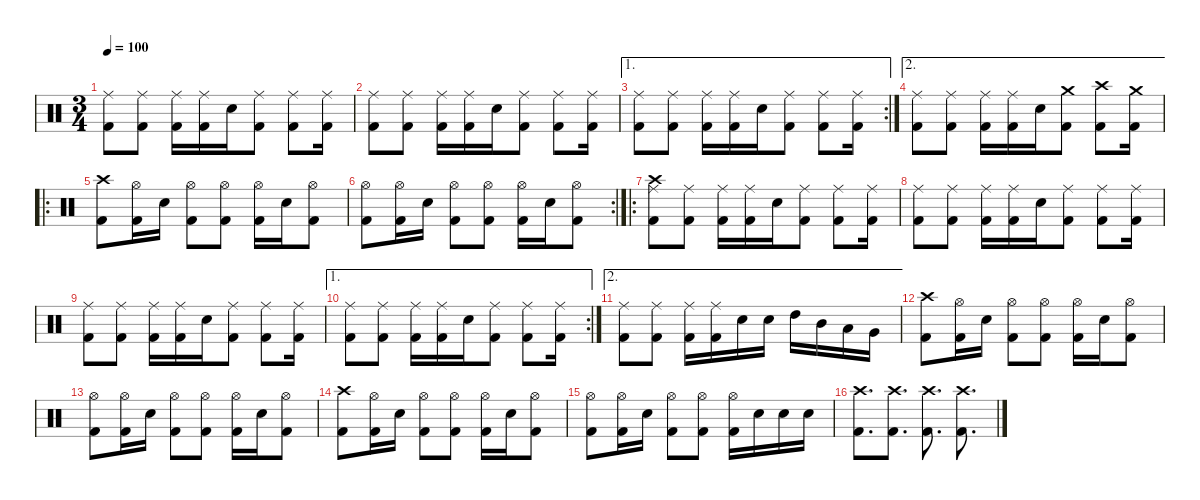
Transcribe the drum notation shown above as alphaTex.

\defaultSystemsLayout 4
\hideDynamics
\bracketExtendMode nobrackets
\singleTrackTrackNamePolicy hidden
\multiTrackTrackNamePolicy hidden
\firstSystemTrackNameMode fullname
\firstSystemTrackNameOrientation horizontal
\otherSystemsTrackNameOrientation horizontal
\track ("Drums" "drm.") {instrument percussion}
\staff {score}
\articulation defaults
\ts (3 4)
\tempo 100
\clef neutral
\ks c
("Ride (middle)" "Kick (hit) 2").8{dy f beam Down} ("Ride (middle)" "Kick (hit) 2").8{beam Down} ("Ride (middle)" "Kick (hit) 2").16{beam Down} ("Ride (middle)" "Kick (hit) 2").16{beam Down} "Snare (hit) 2".16{beam Down} ("Ride (middle)" "Kick (hit) 2").8{beam Down} ("Ride (middle)" "Kick (hit) 2").8{beam Down} ("Ride (middle)" "Kick (hit) 2").16{beam Down} |
("Ride (middle)" "Kick (hit) 2").8{beam Down} ("Ride (middle)" "Kick (hit) 2").8{beam Down} ("Ride (middle)" "Kick (hit) 2").16{beam Down} ("Ride (middle)" "Kick (hit) 2").16{beam Down} "Snare (hit) 2".16{beam Down} ("Ride (middle)" "Kick (hit) 2").8{beam Down} ("Ride (middle)" "Kick (hit) 2").8{beam Down} ("Ride (middle)" "Kick (hit) 2").16{beam Down} |
\ae 1
\rc 2
("Ride (middle)" "Kick (hit) 2").8{beam Down} ("Ride (middle)" "Kick (hit) 2").8{beam Down} ("Ride (middle)" "Kick (hit) 2").16{beam Down} ("Ride (middle)" "Kick (hit) 2").16{beam Down} "Snare (hit) 2".16{beam Down} ("Ride (middle)" "Kick (hit) 2").8{beam Down} ("Ride (middle)" "Kick (hit) 2").8{beam Down} ("Ride (middle)" "Kick (hit) 2").16{beam Down} |
\ae 2
("Ride (middle)" "Kick (hit) 2").8{beam Down} ("Ride (middle)" "Kick (hit) 2").8{beam Down} ("Ride (middle)" "Kick (hit) 2").16{beam Down} ("Ride (middle)" "Kick (hit) 2").16{beam Down} "Snare (hit) 2".16{beam Down} ("Crash medium (hit)" "Kick (hit) 2").8{beam Down} ("Crash high (hit)" "Kick (hit) 2").8{beam Down} ("Crash medium (hit)" "Kick (hit) 2").16{beam Down} |
\ro
("Crash high (hit)" "Kick (hit) 2").8{beam Down} ("Hi-Hat (open)" "Kick (hit) 2").16{dy mf beam Down} "Snare (hit) 2".16{dy f beam Down} ("Hi-Hat (open)" "Kick (hit) 2").8{dy mf beam Down} ("Hi-Hat (open)" "Kick (hit) 2").8{beam Down} ("Hi-Hat (open)" "Kick (hit) 2").16{beam Down} "Snare (hit) 2".16{dy f beam Down} ("Hi-Hat (open)" "Kick (hit) 2").8{dy mf beam Down} |
\rc 2
("Hi-Hat (open)" "Kick (hit) 2").8{beam Down} ("Hi-Hat (open)" "Kick (hit) 2").16{beam Down} "Snare (hit) 2".16{dy f beam Down} ("Hi-Hat (open)" "Kick (hit) 2").8{dy mf beam Down} ("Hi-Hat (open)" "Kick (hit) 2").8{beam Down} ("Hi-Hat (open)" "Kick (hit) 2").16{beam Down} "Snare (hit) 2".16{dy f beam Down} ("Hi-Hat (open)" "Kick (hit) 2").8{dy mf beam Down} |
\ro
("Ride (middle)" "Crash high (hit)" "Kick (hit) 2").8{dy f beam Down} ("Ride (middle)" "Kick (hit) 2").8{beam Down} ("Ride (middle)" "Kick (hit) 2").16{beam Down} ("Ride (middle)" "Kick (hit) 2").16{beam Down} "Snare (hit) 2".16{beam Down} ("Ride (middle)" "Kick (hit) 2").8{beam Down} ("Ride (middle)" "Kick (hit) 2").8{beam Down} ("Ride (middle)" "Kick (hit) 2").16{beam Down} |
("Ride (middle)" "Kick (hit) 2").8{beam Down} ("Ride (middle)" "Kick (hit) 2").8{beam Down} ("Ride (middle)" "Kick (hit) 2").16{beam Down} ("Ride (middle)" "Kick (hit) 2").16{beam Down} "Snare (hit) 2".16{beam Down} ("Ride (middle)" "Kick (hit) 2").8{beam Down} ("Ride (middle)" "Kick (hit) 2").8{beam Down} ("Ride (middle)" "Kick (hit) 2").16{beam Down} |
("Ride (middle)" "Kick (hit) 2").8{beam Down} ("Ride (middle)" "Kick (hit) 2").8{beam Down} ("Ride (middle)" "Kick (hit) 2").16{beam Down} ("Ride (middle)" "Kick (hit) 2").16{beam Down} "Snare (hit) 2".16{beam Down} ("Ride (middle)" "Kick (hit) 2").8{beam Down} ("Ride (middle)" "Kick (hit) 2").8{beam Down} ("Ride (middle)" "Kick (hit) 2").16{beam Down} |
\ae 1
\rc 2
("Ride (middle)" "Kick (hit) 2").8{beam Down} ("Ride (middle)" "Kick (hit) 2").8{beam Down} ("Ride (middle)" "Kick (hit) 2").16{beam Down} ("Ride (middle)" "Kick (hit) 2").16{beam Down} "Snare (hit) 2".16{beam Down} ("Ride (middle)" "Kick (hit) 2").8{beam Down} ("Ride (middle)" "Kick (hit) 2").8{beam Down} ("Ride (middle)" "Kick (hit) 2").16{beam Down} |
\ae 2
("Ride (middle)" "Kick (hit) 2").8{beam Down} ("Ride (middle)" "Kick (hit) 2").8{beam Down} ("Ride (middle)" "Kick (hit) 2").16{beam Down} ("Ride (middle)" "Kick (hit) 2").16{beam Down} "Snare (hit) 2".16{beam Down} "Snare (hit) 2".16{beam Down} "High Tom (hit)".16{beam Down} "Mid Tom (hit)".16{beam Down} "Low Tom (hit)".16{beam Down} "Very Low Tom (hit)".16{beam Down} |
("Crash high (hit)" "Kick (hit) 2").8{beam Down} ("Hi-Hat (open)" "Kick (hit) 2").16{dy mf beam Down} "Snare (hit) 2".16{dy f beam Down} ("Hi-Hat (open)" "Kick (hit) 2").8{dy mf beam Down} ("Hi-Hat (open)" "Kick (hit) 2").8{beam Down} ("Hi-Hat (open)" "Kick (hit) 2").16{beam Down} "Snare (hit) 2".16{dy f beam Down} ("Hi-Hat (open)" "Kick (hit) 2").8{dy mf beam Down} |
("Hi-Hat (open)" "Kick (hit) 2").8{beam Down} ("Hi-Hat (open)" "Kick (hit) 2").16{beam Down} "Snare (hit) 2".16{dy f beam Down} ("Hi-Hat (open)" "Kick (hit) 2").8{dy mf beam Down} ("Hi-Hat (open)" "Kick (hit) 2").8{beam Down} ("Hi-Hat (open)" "Kick (hit) 2").16{beam Down} "Snare (hit) 2".16{dy f beam Down} ("Hi-Hat (open)" "Kick (hit) 2").8{dy mf beam Down} |
("Crash high (hit)" "Kick (hit) 2").8{dy f beam Down} ("Hi-Hat (open)" "Kick (hit) 2").16{dy mf beam Down} "Snare (hit) 2".16{dy f beam Down} ("Hi-Hat (open)" "Kick (hit) 2").8{dy mf beam Down} ("Hi-Hat (open)" "Kick (hit) 2").8{beam Down} ("Hi-Hat (open)" "Kick (hit) 2").16{beam Down} "Snare (hit) 2".16{dy f beam Down} ("Hi-Hat (open)" "Kick (hit) 2").8{dy mf beam Down} |
("Hi-Hat (open)" "Kick (hit) 2").8{beam Down} ("Hi-Hat (open)" "Kick (hit) 2").16{beam Down} "Snare (hit) 2".16{dy f beam Down} ("Hi-Hat (open)" "Kick (hit) 2").8{dy mf beam Down} ("Hi-Hat (open)" "Kick (hit) 2").8{beam Down} ("Hi-Hat (open)" "Kick (hit) 2").16{beam Down} "Snare (hit) 2".16{dy f beam Down} "Snare (hit) 2".16{beam Down} "Snare (hit) 2".16{beam Down} |
("Crash high (hit)" "Kick (hit) 2").8{d beam Down} ("Crash high (hit)" "Kick (hit) 2").8{d beam Down} ("Crash high (hit)" "Kick (hit) 2").8{d beam Down} ("Crash high (hit)" "Kick (hit) 2").8{d beam Down}
